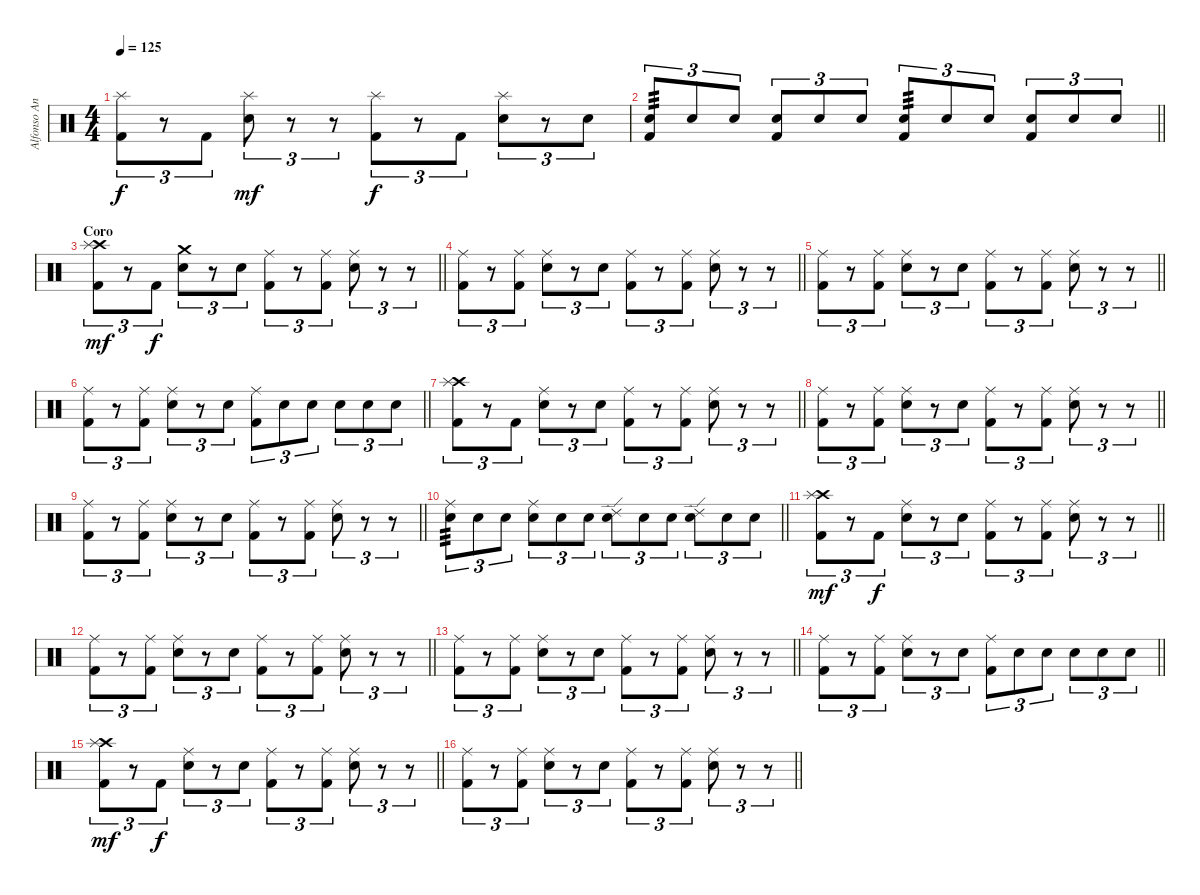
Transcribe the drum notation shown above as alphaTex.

\track ("Alfonso Andre" "Alfonso An") {instrument percussion}
\staff {score}
\articulation defaults
\ts (4 4)
\tempo 125
\clef neutral
\ks c
("Splash (hit)" "Kick (hit) 2").8{tu (3 2) dy f} r.8{tu (3 2)} "Kick (hit) 2".8{tu (3 2)} ("Splash (hit)" "Electric Snare (hit)").8{tu (3 2) dy mf} r.8{tu (3 2)} r.8{tu (3 2)} ("Splash (hit)" "Kick (hit) 2").8{tu (3 2) dy f} r.8{tu (3 2)} "Kick (hit) 2".8{tu (3 2)} ("Splash (hit)" "Electric Snare (hit)").8{tu (3 2)} r.8{tu (3 2)} "Electric Snare (hit)".8{tu (3 2)} |
\barLineRight lightlight
("Kick (hit) 2" "Electric Snare (hit)").8{tu (3 2) tp 3} "Electric Snare (hit)".8{tu (3 2)} "Electric Snare (hit)".8{tu (3 2)} ("Kick (hit) 2" "Electric Snare (hit)").8{tu (3 2)} "Electric Snare (hit)".8{tu (3 2)} "Electric Snare (hit)".8{tu (3 2)} ("Kick (hit) 2" "Electric Snare (hit)").8{tu (3 2) tp 3} "Electric Snare (hit)".8{tu (3 2)} "Electric Snare (hit)".8{tu (3 2)} ("Kick (hit) 2" "Electric Snare (hit)").8{tu (3 2)} "Electric Snare (hit)".8{tu (3 2)} "Electric Snare (hit)".8{tu (3 2)} |
\section ("" "Coro")
\barLineRight lightlight
("Crash high (hit)" "Splash (hit)" "Kick (hit) 2").8{tu (3 2) dy mf} r.8{tu (3 2)} "Kick (hit) 2".8{tu (3 2) dy f} ("Crash medium (hit)" "Electric Snare (hit)").8{tu (3 2)} r.8{tu (3 2)} "Electric Snare (hit)".8{tu (3 2)} ("Ride (middle)" "Kick (hit) 2").8{tu (3 2)} r.8{tu (3 2)} ("Ride (middle)" "Kick (hit) 2").8{tu (3 2)} ("Ride (middle)" "Electric Snare (hit)").8{tu (3 2)} r.8{tu (3 2)} r.8{tu (3 2)} |
\barLineRight lightlight
("Ride (middle)" "Kick (hit) 2").8{tu (3 2)} r.8{tu (3 2)} ("Ride (middle)" "Kick (hit) 2").8{tu (3 2)} ("Ride (middle)" "Electric Snare (hit)").8{tu (3 2)} r.8{tu (3 2)} "Electric Snare (hit)".8{tu (3 2)} ("Ride (middle)" "Kick (hit) 2").8{tu (3 2)} r.8{tu (3 2)} ("Ride (middle)" "Kick (hit) 2").8{tu (3 2)} ("Ride (middle)" "Electric Snare (hit)").8{tu (3 2)} r.8{tu (3 2)} r.8{tu (3 2)} |
\barLineRight lightlight
("Ride (middle)" "Kick (hit) 2").8{tu (3 2)} r.8{tu (3 2)} ("Ride (middle)" "Kick (hit) 2").8{tu (3 2)} ("Ride (middle)" "Electric Snare (hit)").8{tu (3 2)} r.8{tu (3 2)} "Electric Snare (hit)".8{tu (3 2)} ("Ride (middle)" "Kick (hit) 2").8{tu (3 2)} r.8{tu (3 2)} ("Ride (middle)" "Kick (hit) 2").8{tu (3 2)} ("Ride (middle)" "Electric Snare (hit)").8{tu (3 2)} r.8{tu (3 2)} r.8{tu (3 2)} |
\barLineRight lightlight
("Ride (middle)" "Kick (hit) 2").8{tu (3 2)} r.8{tu (3 2)} ("Ride (middle)" "Kick (hit) 2").8{tu (3 2)} ("Ride (middle)" "Electric Snare (hit)").8{tu (3 2)} r.8{tu (3 2)} "Electric Snare (hit)".8{tu (3 2)} ("Ride (middle)" "Kick (hit) 2").8{tu (3 2)} "Electric Snare (hit)".8{tu (3 2)} "Electric Snare (hit)".8{tu (3 2)} "Electric Snare (hit)".8{tu (3 2)} "Electric Snare (hit)".8{tu (3 2)} "Electric Snare (hit)".8{tu (3 2)} |
\barLineRight lightlight
("Crash high (hit)" "Splash (hit)" "Kick (hit) 2").8{tu (3 2)} r.8{tu (3 2)} "Kick (hit) 2".8{tu (3 2)} ("Ride (middle)" "Electric Snare (hit)").8{tu (3 2)} r.8{tu (3 2)} "Electric Snare (hit)".8{tu (3 2)} ("Ride (middle)" "Kick (hit) 2").8{tu (3 2)} r.8{tu (3 2)} ("Ride (middle)" "Kick (hit) 2").8{tu (3 2)} ("Ride (middle)" "Electric Snare (hit)").8{tu (3 2)} r.8{tu (3 2)} r.8{tu (3 2)} |
\barLineRight lightlight
("Ride (middle)" "Kick (hit) 2").8{tu (3 2)} r.8{tu (3 2)} ("Ride (middle)" "Kick (hit) 2").8{tu (3 2)} ("Ride (middle)" "Electric Snare (hit)").8{tu (3 2)} r.8{tu (3 2)} "Electric Snare (hit)".8{tu (3 2)} ("Ride (middle)" "Kick (hit) 2").8{tu (3 2)} r.8{tu (3 2)} ("Ride (middle)" "Kick (hit) 2").8{tu (3 2)} ("Ride (middle)" "Electric Snare (hit)").8{tu (3 2)} r.8{tu (3 2)} r.8{tu (3 2)} |
\barLineRight lightlight
("Ride (middle)" "Kick (hit) 2").8{tu (3 2)} r.8{tu (3 2)} ("Ride (middle)" "Kick (hit) 2").8{tu (3 2)} ("Ride (middle)" "Electric Snare (hit)").8{tu (3 2)} r.8{tu (3 2)} "Electric Snare (hit)".8{tu (3 2)} ("Ride (middle)" "Kick (hit) 2").8{tu (3 2)} r.8{tu (3 2)} ("Ride (middle)" "Kick (hit) 2").8{tu (3 2)} ("Ride (middle)" "Electric Snare (hit)").8{tu (3 2)} r.8{tu (3 2)} r.8{tu (3 2)} |
\barLineRight lightlight
("Ride (middle)" "Electric Snare (hit)").8{tu (3 2) tp 3} "Electric Snare (hit)".8{tu (3 2)} "Electric Snare (hit)".8{tu (3 2)} ("Ride (middle)" "Electric Snare (hit)").8{tu (3 2)} "Electric Snare (hit)".8{tu (3 2)} "Electric Snare (hit)".8{tu (3 2)} ("Ride (edge) 2" "Electric Snare (hit)").8{tu (3 2)} "Electric Snare (hit)".8{tu (3 2)} "Electric Snare (hit)".8{tu (3 2)} ("Ride (edge) 2" "Electric Snare (hit)").8{tu (3 2)} "Electric Snare (hit)".8{tu (3 2)} "Electric Snare (hit)".8{tu (3 2)} |
\barLineRight lightlight
("Crash high (hit)" "Splash (hit)" "Kick (hit) 2").8{tu (3 2) dy mf} r.8{tu (3 2)} "Kick (hit) 2".8{tu (3 2) dy f} ("Ride (middle)" "Electric Snare (hit)").8{tu (3 2)} r.8{tu (3 2)} "Electric Snare (hit)".8{tu (3 2)} ("Ride (middle)" "Kick (hit) 2").8{tu (3 2)} r.8{tu (3 2)} ("Ride (middle)" "Kick (hit) 2").8{tu (3 2)} ("Ride (middle)" "Electric Snare (hit)").8{tu (3 2)} r.8{tu (3 2)} r.8{tu (3 2)} |
\barLineRight lightlight
("Ride (middle)" "Kick (hit) 2").8{tu (3 2)} r.8{tu (3 2)} ("Ride (middle)" "Kick (hit) 2").8{tu (3 2)} ("Ride (middle)" "Electric Snare (hit)").8{tu (3 2)} r.8{tu (3 2)} "Electric Snare (hit)".8{tu (3 2)} ("Ride (middle)" "Kick (hit) 2").8{tu (3 2)} r.8{tu (3 2)} ("Ride (middle)" "Kick (hit) 2").8{tu (3 2)} ("Ride (middle)" "Electric Snare (hit)").8{tu (3 2)} r.8{tu (3 2)} r.8{tu (3 2)} |
\barLineRight lightlight
("Ride (middle)" "Kick (hit) 2").8{tu (3 2)} r.8{tu (3 2)} ("Ride (middle)" "Kick (hit) 2").8{tu (3 2)} ("Ride (middle)" "Electric Snare (hit)").8{tu (3 2)} r.8{tu (3 2)} "Electric Snare (hit)".8{tu (3 2)} ("Ride (middle)" "Kick (hit) 2").8{tu (3 2)} r.8{tu (3 2)} ("Ride (middle)" "Kick (hit) 2").8{tu (3 2)} ("Ride (middle)" "Electric Snare (hit)").8{tu (3 2)} r.8{tu (3 2)} r.8{tu (3 2)} |
\barLineRight lightlight
("Ride (middle)" "Kick (hit) 2").8{tu (3 2)} r.8{tu (3 2)} ("Ride (middle)" "Kick (hit) 2").8{tu (3 2)} ("Ride (middle)" "Electric Snare (hit)").8{tu (3 2)} r.8{tu (3 2)} "Electric Snare (hit)".8{tu (3 2)} ("Ride (middle)" "Kick (hit) 2").8{tu (3 2)} "Electric Snare (hit)".8{tu (3 2)} "Electric Snare (hit)".8{tu (3 2)} "Electric Snare (hit)".8{tu (3 2)} "Electric Snare (hit)".8{tu (3 2)} "Electric Snare (hit)".8{tu (3 2)} |
\barLineRight lightlight
("Crash high (hit)" "Splash (hit)" "Kick (hit) 2").8{tu (3 2) dy mf} r.8{tu (3 2)} "Kick (hit) 2".8{tu (3 2) dy f} ("Ride (middle)" "Electric Snare (hit)").8{tu (3 2)} r.8{tu (3 2)} "Electric Snare (hit)".8{tu (3 2)} ("Ride (middle)" "Kick (hit) 2").8{tu (3 2)} r.8{tu (3 2)} ("Ride (middle)" "Kick (hit) 2").8{tu (3 2)} ("Ride (middle)" "Electric Snare (hit)").8{tu (3 2)} r.8{tu (3 2)} r.8{tu (3 2)} |
\barLineRight lightlight
("Ride (middle)" "Kick (hit) 2").8{tu (3 2)} r.8{tu (3 2)} ("Ride (middle)" "Kick (hit) 2").8{tu (3 2)} ("Ride (middle)" "Electric Snare (hit)").8{tu (3 2)} r.8{tu (3 2)} "Electric Snare (hit)".8{tu (3 2)} ("Ride (middle)" "Kick (hit) 2").8{tu (3 2)} r.8{tu (3 2)} ("Ride (middle)" "Kick (hit) 2").8{tu (3 2)} ("Ride (middle)" "Electric Snare (hit)").8{tu (3 2)} r.8{tu (3 2)} r.8{tu (3 2)}
